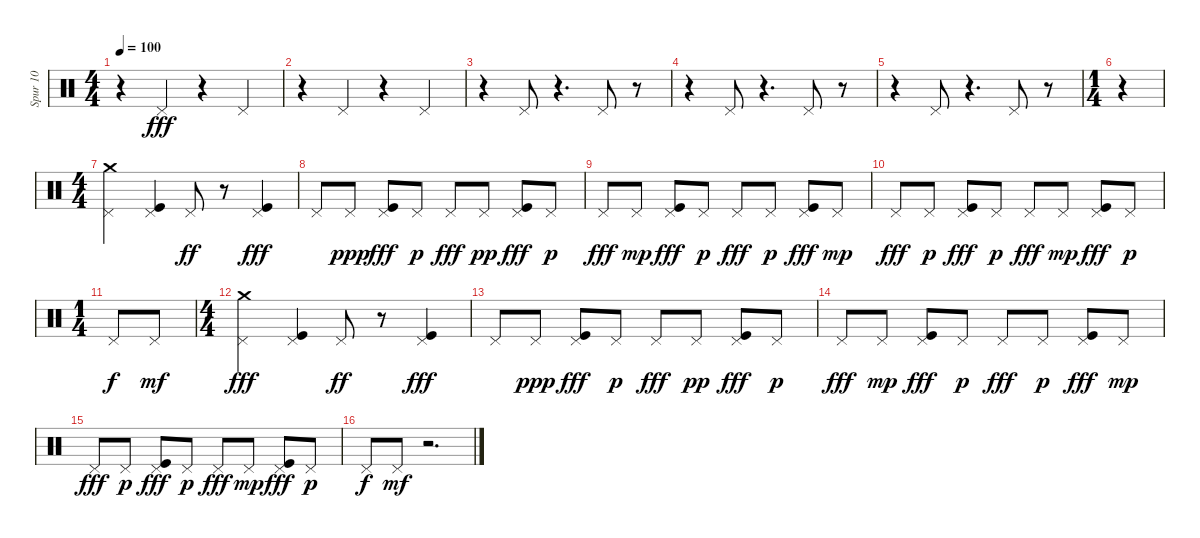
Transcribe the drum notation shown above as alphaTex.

\track ("Spur 10" "Spur 10") {instrument percussion}
\staff {score}
\articulation defaults
\ts (4 4)
\tempo 100
\clef neutral
\ks c
r.4{dy fff} "Pedal Hi-Hat (hit)".4 r.4 "Pedal Hi-Hat (hit)".4 |
r.4 "Pedal Hi-Hat (hit)".4 r.4 "Pedal Hi-Hat (hit)".4 |
r.4 "Pedal Hi-Hat (hit)".8 r.4{d} "Pedal Hi-Hat (hit)".8 r.8 |
r.4 "Pedal Hi-Hat (hit)".8 r.4{d} "Pedal Hi-Hat (hit)".8 r.8 |
r.4 "Pedal Hi-Hat (hit)".8 r.4{d} "Pedal Hi-Hat (hit)".8 r.8 |
\ts (1 4)
r.4 |
\ts (4 4)
("Crash medium (hit)" "Pedal Hi-Hat (hit)").4 ("Pedal Hi-Hat (hit)" "Kick (hit)").4 "Pedal Hi-Hat (hit)".8{dy ff} r.8 ("Pedal Hi-Hat (hit)" "Kick (hit)").4{dy fff} |
"Pedal Hi-Hat (hit)".8 "Pedal Hi-Hat (hit)".8{dy ppp} ("Pedal Hi-Hat (hit)" "Kick (hit)").8{dy fff} "Pedal Hi-Hat (hit)".8{dy p} "Pedal Hi-Hat (hit)".8{dy fff} "Pedal Hi-Hat (hit)".8{dy pp} ("Pedal Hi-Hat (hit)" "Kick (hit)").8{dy fff} "Pedal Hi-Hat (hit)".8{dy p} |
"Pedal Hi-Hat (hit)".8{dy fff} "Pedal Hi-Hat (hit)".8{dy mp} ("Pedal Hi-Hat (hit)" "Kick (hit)").8{dy fff} "Pedal Hi-Hat (hit)".8{dy p} "Pedal Hi-Hat (hit)".8{dy fff} "Pedal Hi-Hat (hit)".8{dy p} ("Pedal Hi-Hat (hit)" "Kick (hit)").8{dy fff} "Pedal Hi-Hat (hit)".8{dy mp} |
"Pedal Hi-Hat (hit)".8{dy fff} "Pedal Hi-Hat (hit)".8{dy p} ("Pedal Hi-Hat (hit)" "Kick (hit)").8{dy fff} "Pedal Hi-Hat (hit)".8{dy p} "Pedal Hi-Hat (hit)".8{dy fff} "Pedal Hi-Hat (hit)".8{dy mp} ("Pedal Hi-Hat (hit)" "Kick (hit)").8{dy fff} "Pedal Hi-Hat (hit)".8{dy p} |
\ts (1 4)
"Pedal Hi-Hat (hit)".8{dy f} "Pedal Hi-Hat (hit)".8{dy mf} |
\ts (4 4)
("Crash medium (hit)" "Pedal Hi-Hat (hit)").4{dy fff} ("Pedal Hi-Hat (hit)" "Kick (hit)").4 "Pedal Hi-Hat (hit)".8{dy ff} r.8 ("Pedal Hi-Hat (hit)" "Kick (hit)").4{dy fff} |
"Pedal Hi-Hat (hit)".8 "Pedal Hi-Hat (hit)".8{dy ppp} ("Pedal Hi-Hat (hit)" "Kick (hit)").8{dy fff} "Pedal Hi-Hat (hit)".8{dy p} "Pedal Hi-Hat (hit)".8{dy fff} "Pedal Hi-Hat (hit)".8{dy pp} ("Pedal Hi-Hat (hit)" "Kick (hit)").8{dy fff} "Pedal Hi-Hat (hit)".8{dy p} |
"Pedal Hi-Hat (hit)".8{dy fff} "Pedal Hi-Hat (hit)".8{dy mp} ("Pedal Hi-Hat (hit)" "Kick (hit)").8{dy fff} "Pedal Hi-Hat (hit)".8{dy p} "Pedal Hi-Hat (hit)".8{dy fff} "Pedal Hi-Hat (hit)".8{dy p} ("Pedal Hi-Hat (hit)" "Kick (hit)").8{dy fff} "Pedal Hi-Hat (hit)".8{dy mp} |
"Pedal Hi-Hat (hit)".8{dy fff} "Pedal Hi-Hat (hit)".8{dy p} ("Pedal Hi-Hat (hit)" "Kick (hit)").8{dy fff} "Pedal Hi-Hat (hit)".8{dy p} "Pedal Hi-Hat (hit)".8{dy fff} "Pedal Hi-Hat (hit)".8{dy mp} ("Pedal Hi-Hat (hit)" "Kick (hit)").8{dy fff} "Pedal Hi-Hat (hit)".8{dy p} |
"Pedal Hi-Hat (hit)".8{dy f} "Pedal Hi-Hat (hit)".8{dy mf} r.2{d}
